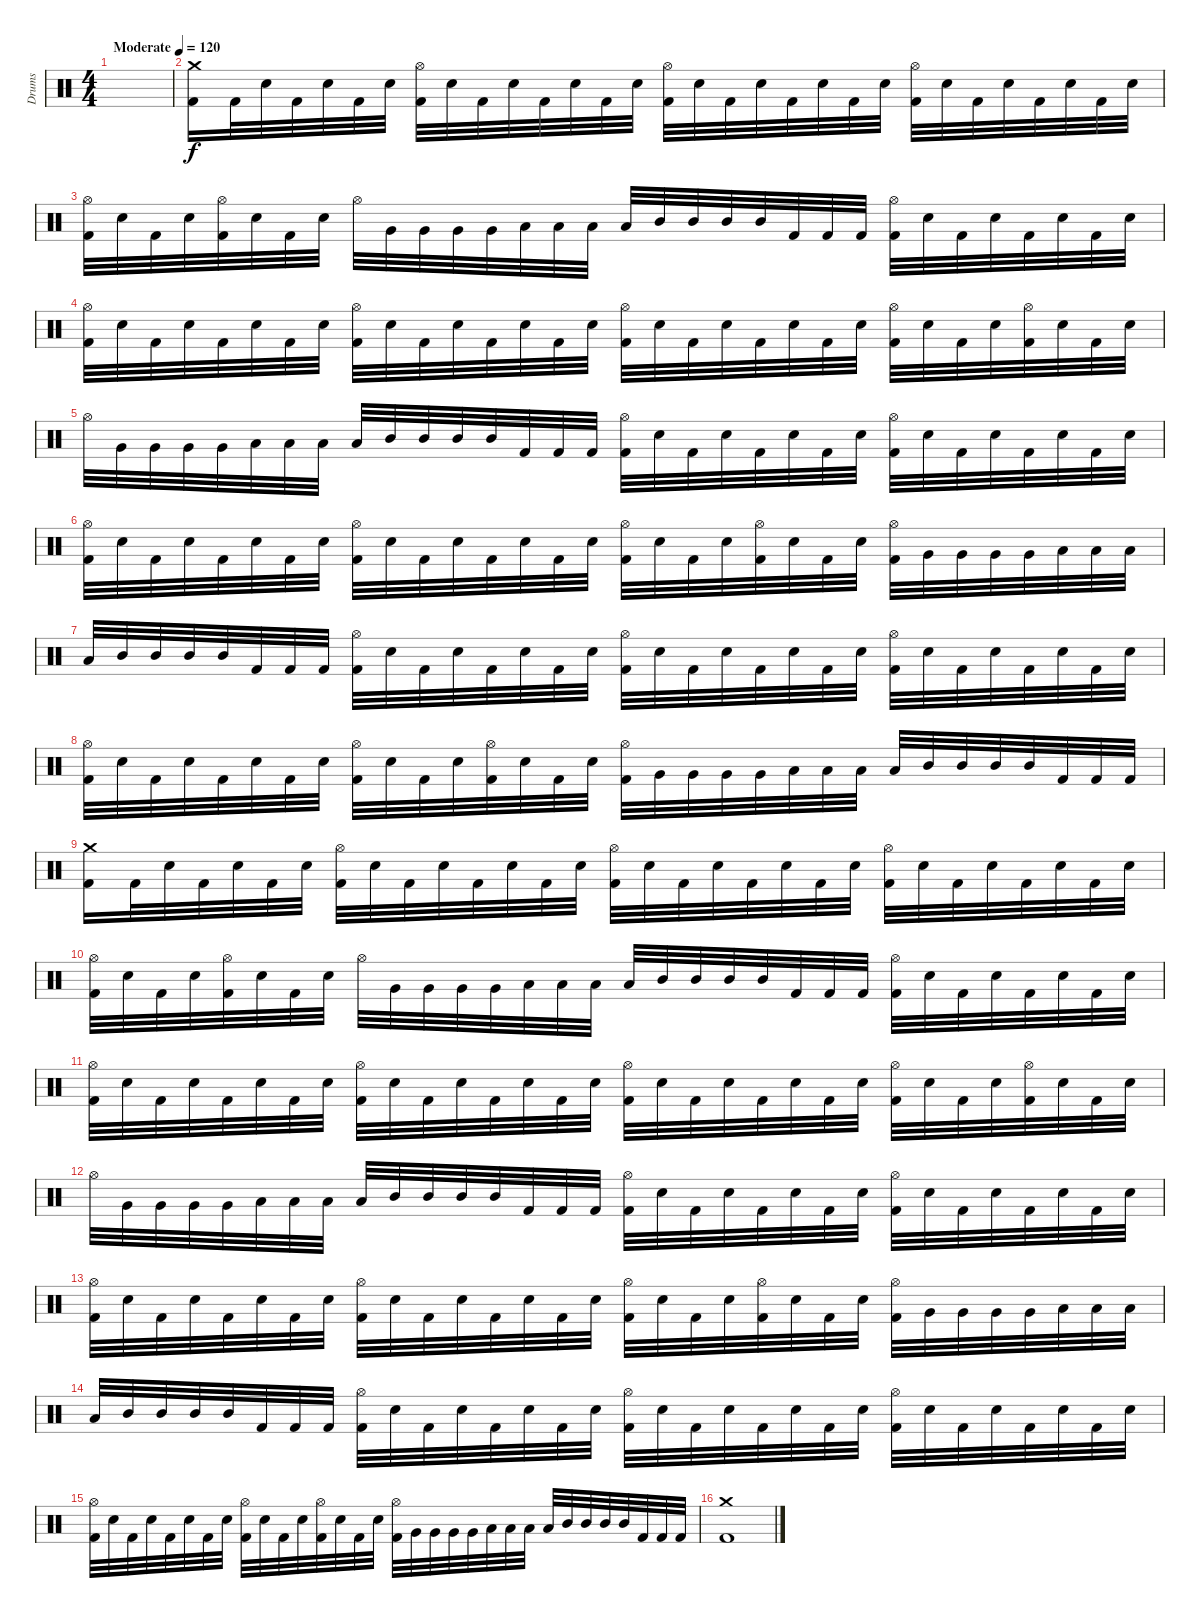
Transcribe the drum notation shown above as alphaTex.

\track ("Drums" "Drums") {instrument percussion}
\staff {score}
\articulation defaults
\ts (4 4)
\tempo (120 "Moderate")
\clef neutral
\ks c
|
("Kick (hit) 2" "Crash medium (hit)").16 "Kick (hit) 2".32 "Electric Snare (hit)".32 "Kick (hit) 2".32 "Electric Snare (hit)".32 "Kick (hit) 2".32 "Electric Snare (hit)".32 ("Kick (hit) 2" "Hi-Hat (open)").32 "Electric Snare (hit)".32 "Kick (hit) 2".32 "Electric Snare (hit)".32 "Kick (hit) 2".32 "Electric Snare (hit)".32 "Kick (hit) 2".32 "Electric Snare (hit)".32 ("Kick (hit) 2" "Hi-Hat (open)").32 "Electric Snare (hit)".32 "Kick (hit) 2".32 "Electric Snare (hit)".32 "Kick (hit) 2".32 "Electric Snare (hit)".32 "Kick (hit) 2".32 "Electric Snare (hit)".32 ("Kick (hit) 2" "Hi-Hat (open)").32 "Electric Snare (hit)".32 "Kick (hit) 2".32 "Electric Snare (hit)".32 "Kick (hit) 2".32 "Electric Snare (hit)".32 "Kick (hit) 2".32 "Electric Snare (hit)".32 |
("Kick (hit) 2" "Hi-Hat (open)").32 "Electric Snare (hit)".32 "Kick (hit) 2".32 "Electric Snare (hit)".32 ("Kick (hit) 2" "Hi-Hat (open)").32 "Electric Snare (hit)".32 "Kick (hit) 2".32 "Electric Snare (hit)".32 "Hi-Hat (open)".32 "Very Low Tom (hit)".32 "Very Low Tom (hit)".32 "Very Low Tom (hit)".32 "Very Low Tom (hit)".32 "Low Tom (hit)".32 "Low Tom (hit)".32 "Low Tom (hit)".32 "Low Tom (hit)".32 "Mid Tom (hit)".32 "Mid Tom (hit)".32 "Mid Tom (hit)".32 "Mid Tom (hit)".32 "Kick (hit) 2".32 "Kick (hit) 2".32 "Kick (hit) 2".32 ("Kick (hit) 2" "Hi-Hat (open)").32 "Electric Snare (hit)".32 "Kick (hit) 2".32 "Electric Snare (hit)".32 "Kick (hit) 2".32 "Electric Snare (hit)".32 "Kick (hit) 2".32 "Electric Snare (hit)".32 |
("Kick (hit) 2" "Hi-Hat (open)").32 "Electric Snare (hit)".32 "Kick (hit) 2".32 "Electric Snare (hit)".32 "Kick (hit) 2".32 "Electric Snare (hit)".32 "Kick (hit) 2".32 "Electric Snare (hit)".32 ("Kick (hit) 2" "Hi-Hat (open)").32 "Electric Snare (hit)".32 "Kick (hit) 2".32 "Electric Snare (hit)".32 "Kick (hit) 2".32 "Electric Snare (hit)".32 "Kick (hit) 2".32 "Electric Snare (hit)".32 ("Kick (hit) 2" "Hi-Hat (open)").32 "Electric Snare (hit)".32 "Kick (hit) 2".32 "Electric Snare (hit)".32 "Kick (hit) 2".32 "Electric Snare (hit)".32 "Kick (hit) 2".32 "Electric Snare (hit)".32 ("Kick (hit) 2" "Hi-Hat (open)").32 "Electric Snare (hit)".32 "Kick (hit) 2".32 "Electric Snare (hit)".32 ("Kick (hit) 2" "Hi-Hat (open)").32 "Electric Snare (hit)".32 "Kick (hit) 2".32 "Electric Snare (hit)".32 |
"Hi-Hat (open)".32 "Very Low Tom (hit)".32 "Very Low Tom (hit)".32 "Very Low Tom (hit)".32 "Very Low Tom (hit)".32 "Low Tom (hit)".32 "Low Tom (hit)".32 "Low Tom (hit)".32 "Low Tom (hit)".32 "Mid Tom (hit)".32 "Mid Tom (hit)".32 "Mid Tom (hit)".32 "Mid Tom (hit)".32 "Kick (hit) 2".32 "Kick (hit) 2".32 "Kick (hit) 2".32 ("Kick (hit) 2" "Hi-Hat (open)").32 "Electric Snare (hit)".32 "Kick (hit) 2".32 "Electric Snare (hit)".32 "Kick (hit) 2".32 "Electric Snare (hit)".32 "Kick (hit) 2".32 "Electric Snare (hit)".32 ("Kick (hit) 2" "Hi-Hat (open)").32 "Electric Snare (hit)".32 "Kick (hit) 2".32 "Electric Snare (hit)".32 "Kick (hit) 2".32 "Electric Snare (hit)".32 "Kick (hit) 2".32 "Electric Snare (hit)".32 |
("Kick (hit) 2" "Hi-Hat (open)").32 "Electric Snare (hit)".32 "Kick (hit) 2".32 "Electric Snare (hit)".32 "Kick (hit) 2".32 "Electric Snare (hit)".32 "Kick (hit) 2".32 "Electric Snare (hit)".32 ("Kick (hit) 2" "Hi-Hat (open)").32 "Electric Snare (hit)".32 "Kick (hit) 2".32 "Electric Snare (hit)".32 "Kick (hit) 2".32 "Electric Snare (hit)".32 "Kick (hit) 2".32 "Electric Snare (hit)".32 ("Kick (hit) 2" "Hi-Hat (open)").32 "Electric Snare (hit)".32 "Kick (hit) 2".32 "Electric Snare (hit)".32 ("Kick (hit) 2" "Hi-Hat (open)").32 "Electric Snare (hit)".32 "Kick (hit) 2".32 "Electric Snare (hit)".32 ("Kick (hit) 2" "Hi-Hat (open)").32 "Very Low Tom (hit)".32 "Very Low Tom (hit)".32 "Very Low Tom (hit)".32 "Very Low Tom (hit)".32 "Low Tom (hit)".32 "Low Tom (hit)".32 "Low Tom (hit)".32 |
"Low Tom (hit)".32 "Mid Tom (hit)".32 "Mid Tom (hit)".32 "Mid Tom (hit)".32 "Mid Tom (hit)".32 "Kick (hit) 2".32 "Kick (hit) 2".32 "Kick (hit) 2".32 ("Kick (hit) 2" "Hi-Hat (open)").32 "Electric Snare (hit)".32 "Kick (hit) 2".32 "Electric Snare (hit)".32 "Kick (hit) 2".32 "Electric Snare (hit)".32 "Kick (hit) 2".32 "Electric Snare (hit)".32 ("Kick (hit) 2" "Hi-Hat (open)").32 "Electric Snare (hit)".32 "Kick (hit) 2".32 "Electric Snare (hit)".32 "Kick (hit) 2".32 "Electric Snare (hit)".32 "Kick (hit) 2".32 "Electric Snare (hit)".32 ("Kick (hit) 2" "Hi-Hat (open)").32 "Electric Snare (hit)".32 "Kick (hit) 2".32 "Electric Snare (hit)".32 "Kick (hit) 2".32 "Electric Snare (hit)".32 "Kick (hit) 2".32 "Electric Snare (hit)".32 |
("Kick (hit) 2" "Hi-Hat (open)").32 "Electric Snare (hit)".32 "Kick (hit) 2".32 "Electric Snare (hit)".32 "Kick (hit) 2".32 "Electric Snare (hit)".32 "Kick (hit) 2".32 "Electric Snare (hit)".32 ("Kick (hit) 2" "Hi-Hat (open)").32 "Electric Snare (hit)".32 "Kick (hit) 2".32 "Electric Snare (hit)".32 ("Kick (hit) 2" "Hi-Hat (open)").32 "Electric Snare (hit)".32 "Kick (hit) 2".32 "Electric Snare (hit)".32 ("Kick (hit) 2" "Hi-Hat (open)").32 "Very Low Tom (hit)".32 "Very Low Tom (hit)".32 "Very Low Tom (hit)".32 "Very Low Tom (hit)".32 "Low Tom (hit)".32 "Low Tom (hit)".32 "Low Tom (hit)".32 "Low Tom (hit)".32 "Mid Tom (hit)".32 "Mid Tom (hit)".32 "Mid Tom (hit)".32 "Mid Tom (hit)".32 "Kick (hit) 2".32 "Kick (hit) 2".32 "Kick (hit) 2".32 |
("Kick (hit) 2" "Crash medium (hit)").16 "Kick (hit) 2".32 "Electric Snare (hit)".32 "Kick (hit) 2".32 "Electric Snare (hit)".32 "Kick (hit) 2".32 "Electric Snare (hit)".32 ("Kick (hit) 2" "Hi-Hat (open)").32 "Electric Snare (hit)".32 "Kick (hit) 2".32 "Electric Snare (hit)".32 "Kick (hit) 2".32 "Electric Snare (hit)".32 "Kick (hit) 2".32 "Electric Snare (hit)".32 ("Kick (hit) 2" "Hi-Hat (open)").32 "Electric Snare (hit)".32 "Kick (hit) 2".32 "Electric Snare (hit)".32 "Kick (hit) 2".32 "Electric Snare (hit)".32 "Kick (hit) 2".32 "Electric Snare (hit)".32 ("Kick (hit) 2" "Hi-Hat (open)").32 "Electric Snare (hit)".32 "Kick (hit) 2".32 "Electric Snare (hit)".32 "Kick (hit) 2".32 "Electric Snare (hit)".32 "Kick (hit) 2".32 "Electric Snare (hit)".32 |
("Kick (hit) 2" "Hi-Hat (open)").32 "Electric Snare (hit)".32 "Kick (hit) 2".32 "Electric Snare (hit)".32 ("Kick (hit) 2" "Hi-Hat (open)").32 "Electric Snare (hit)".32 "Kick (hit) 2".32 "Electric Snare (hit)".32 "Hi-Hat (open)".32 "Very Low Tom (hit)".32 "Very Low Tom (hit)".32 "Very Low Tom (hit)".32 "Very Low Tom (hit)".32 "Low Tom (hit)".32 "Low Tom (hit)".32 "Low Tom (hit)".32 "Low Tom (hit)".32 "Mid Tom (hit)".32 "Mid Tom (hit)".32 "Mid Tom (hit)".32 "Mid Tom (hit)".32 "Kick (hit) 2".32 "Kick (hit) 2".32 "Kick (hit) 2".32 ("Kick (hit) 2" "Hi-Hat (open)").32 "Electric Snare (hit)".32 "Kick (hit) 2".32 "Electric Snare (hit)".32 "Kick (hit) 2".32 "Electric Snare (hit)".32 "Kick (hit) 2".32 "Electric Snare (hit)".32 |
("Kick (hit) 2" "Hi-Hat (open)").32 "Electric Snare (hit)".32 "Kick (hit) 2".32 "Electric Snare (hit)".32 "Kick (hit) 2".32 "Electric Snare (hit)".32 "Kick (hit) 2".32 "Electric Snare (hit)".32 ("Kick (hit) 2" "Hi-Hat (open)").32 "Electric Snare (hit)".32 "Kick (hit) 2".32 "Electric Snare (hit)".32 "Kick (hit) 2".32 "Electric Snare (hit)".32 "Kick (hit) 2".32 "Electric Snare (hit)".32 ("Kick (hit) 2" "Hi-Hat (open)").32 "Electric Snare (hit)".32 "Kick (hit) 2".32 "Electric Snare (hit)".32 "Kick (hit) 2".32 "Electric Snare (hit)".32 "Kick (hit) 2".32 "Electric Snare (hit)".32 ("Kick (hit) 2" "Hi-Hat (open)").32 "Electric Snare (hit)".32 "Kick (hit) 2".32 "Electric Snare (hit)".32 ("Kick (hit) 2" "Hi-Hat (open)").32 "Electric Snare (hit)".32 "Kick (hit) 2".32 "Electric Snare (hit)".32 |
"Hi-Hat (open)".32 "Very Low Tom (hit)".32 "Very Low Tom (hit)".32 "Very Low Tom (hit)".32 "Very Low Tom (hit)".32 "Low Tom (hit)".32 "Low Tom (hit)".32 "Low Tom (hit)".32 "Low Tom (hit)".32 "Mid Tom (hit)".32 "Mid Tom (hit)".32 "Mid Tom (hit)".32 "Mid Tom (hit)".32 "Kick (hit) 2".32 "Kick (hit) 2".32 "Kick (hit) 2".32 ("Kick (hit) 2" "Hi-Hat (open)").32 "Electric Snare (hit)".32 "Kick (hit) 2".32 "Electric Snare (hit)".32 "Kick (hit) 2".32 "Electric Snare (hit)".32 "Kick (hit) 2".32 "Electric Snare (hit)".32 ("Kick (hit) 2" "Hi-Hat (open)").32 "Electric Snare (hit)".32 "Kick (hit) 2".32 "Electric Snare (hit)".32 "Kick (hit) 2".32 "Electric Snare (hit)".32 "Kick (hit) 2".32 "Electric Snare (hit)".32 |
("Kick (hit) 2" "Hi-Hat (open)").32 "Electric Snare (hit)".32 "Kick (hit) 2".32 "Electric Snare (hit)".32 "Kick (hit) 2".32 "Electric Snare (hit)".32 "Kick (hit) 2".32 "Electric Snare (hit)".32 ("Kick (hit) 2" "Hi-Hat (open)").32 "Electric Snare (hit)".32 "Kick (hit) 2".32 "Electric Snare (hit)".32 "Kick (hit) 2".32 "Electric Snare (hit)".32 "Kick (hit) 2".32 "Electric Snare (hit)".32 ("Kick (hit) 2" "Hi-Hat (open)").32 "Electric Snare (hit)".32 "Kick (hit) 2".32 "Electric Snare (hit)".32 ("Kick (hit) 2" "Hi-Hat (open)").32 "Electric Snare (hit)".32 "Kick (hit) 2".32 "Electric Snare (hit)".32 ("Kick (hit) 2" "Hi-Hat (open)").32 "Very Low Tom (hit)".32 "Very Low Tom (hit)".32 "Very Low Tom (hit)".32 "Very Low Tom (hit)".32 "Low Tom (hit)".32 "Low Tom (hit)".32 "Low Tom (hit)".32 |
"Low Tom (hit)".32 "Mid Tom (hit)".32 "Mid Tom (hit)".32 "Mid Tom (hit)".32 "Mid Tom (hit)".32 "Kick (hit) 2".32 "Kick (hit) 2".32 "Kick (hit) 2".32 ("Kick (hit) 2" "Hi-Hat (open)").32 "Electric Snare (hit)".32 "Kick (hit) 2".32 "Electric Snare (hit)".32 "Kick (hit) 2".32 "Electric Snare (hit)".32 "Kick (hit) 2".32 "Electric Snare (hit)".32 ("Kick (hit) 2" "Hi-Hat (open)").32 "Electric Snare (hit)".32 "Kick (hit) 2".32 "Electric Snare (hit)".32 "Kick (hit) 2".32 "Electric Snare (hit)".32 "Kick (hit) 2".32 "Electric Snare (hit)".32 ("Kick (hit) 2" "Hi-Hat (open)").32 "Electric Snare (hit)".32 "Kick (hit) 2".32 "Electric Snare (hit)".32 "Kick (hit) 2".32 "Electric Snare (hit)".32 "Kick (hit) 2".32 "Electric Snare (hit)".32 |
("Kick (hit) 2" "Hi-Hat (open)").32 "Electric Snare (hit)".32 "Kick (hit) 2".32 "Electric Snare (hit)".32 "Kick (hit) 2".32 "Electric Snare (hit)".32 "Kick (hit) 2".32 "Electric Snare (hit)".32 ("Kick (hit) 2" "Hi-Hat (open)").32 "Electric Snare (hit)".32 "Kick (hit) 2".32 "Electric Snare (hit)".32 ("Kick (hit) 2" "Hi-Hat (open)").32 "Electric Snare (hit)".32 "Kick (hit) 2".32 "Electric Snare (hit)".32 ("Kick (hit) 2" "Hi-Hat (open)").32 "Very Low Tom (hit)".32 "Very Low Tom (hit)".32 "Very Low Tom (hit)".32 "Very Low Tom (hit)".32 "Low Tom (hit)".32 "Low Tom (hit)".32 "Low Tom (hit)".32 "Low Tom (hit)".32 "Mid Tom (hit)".32 "Mid Tom (hit)".32 "Mid Tom (hit)".32 "Mid Tom (hit)".32 "Kick (hit) 2".32 "Kick (hit) 2".32 "Kick (hit) 2".32 |
("Kick (hit) 2" "Crash medium (hit)").1
